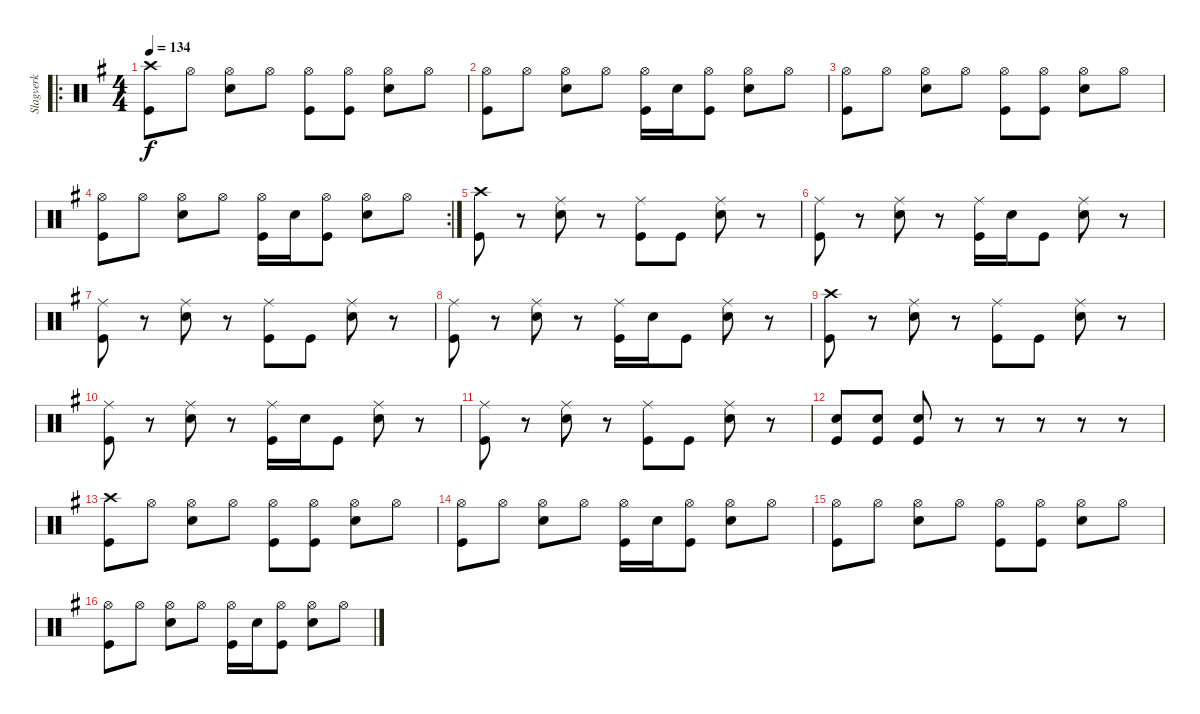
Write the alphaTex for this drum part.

\track ("Slagverk" "Slagverk") {instrument percussion}
\staff {score}
\articulation defaults
\ro
\ts (4 4)
\tempo 134
\clef neutral
\ks g
("Crash high (hit)" "Kick (hit)").8{dy f} "Hi-Hat (open)".8 ("Hi-Hat (open)" "Electric Snare (hit)").8 "Hi-Hat (open)".8 ("Hi-Hat (open)" "Kick (hit)").8 ("Hi-Hat (open)" "Kick (hit)").8 ("Hi-Hat (open)" "Electric Snare (hit)").8 "Hi-Hat (open)".8 |
("Hi-Hat (open)" "Kick (hit)").8 "Hi-Hat (open)".8 ("Hi-Hat (open)" "Electric Snare (hit)").8 "Hi-Hat (open)".8 ("Hi-Hat (open)" "Kick (hit)").16 "Electric Snare (hit)".16 ("Hi-Hat (open)" "Kick (hit)").8 ("Hi-Hat (open)" "Electric Snare (hit)").8 "Hi-Hat (open)".8 |
("Hi-Hat (open)" "Kick (hit)").8 "Hi-Hat (open)".8 ("Hi-Hat (open)" "Electric Snare (hit)").8 "Hi-Hat (open)".8 ("Hi-Hat (open)" "Kick (hit)").8 ("Hi-Hat (open)" "Kick (hit)").8 ("Hi-Hat (open)" "Electric Snare (hit)").8 "Hi-Hat (open)".8 |
\rc 2
("Hi-Hat (open)" "Kick (hit)").8 "Hi-Hat (open)".8 ("Hi-Hat (open)" "Electric Snare (hit)").8 "Hi-Hat (open)".8 ("Hi-Hat (open)" "Kick (hit)").16 "Electric Snare (hit)".16 ("Hi-Hat (open)" "Kick (hit)").8 ("Hi-Hat (open)" "Electric Snare (hit)").8 "Hi-Hat (open)".8 |
("Crash high (hit)" "Kick (hit)").8 r.8 ("Ride (middle)" "Electric Snare (hit)").8 r.8 ("Ride (middle)" "Kick (hit)").8 "Kick (hit)".8 ("Ride (middle)" "Electric Snare (hit)").8 r.8 |
("Ride (middle)" "Kick (hit)").8 r.8 ("Ride (middle)" "Electric Snare (hit)").8 r.8 ("Ride (middle)" "Kick (hit)").16 "Electric Snare (hit)".16 "Kick (hit)".8 ("Ride (middle)" "Electric Snare (hit)").8 r.8 |
("Ride (middle)" "Kick (hit)").8 r.8 ("Ride (middle)" "Electric Snare (hit)").8 r.8 ("Ride (middle)" "Kick (hit)").8 "Kick (hit)".8 ("Ride (middle)" "Electric Snare (hit)").8 r.8 |
("Ride (middle)" "Kick (hit)").8 r.8 ("Ride (middle)" "Electric Snare (hit)").8 r.8 ("Ride (middle)" "Kick (hit)").16 "Electric Snare (hit)".16 "Kick (hit)".8 ("Ride (middle)" "Electric Snare (hit)").8 r.8 |
("Crash high (hit)" "Kick (hit)").8 r.8 ("Ride (middle)" "Electric Snare (hit)").8 r.8 ("Ride (middle)" "Kick (hit)").8 "Kick (hit)".8 ("Ride (middle)" "Electric Snare (hit)").8 r.8 |
("Ride (middle)" "Kick (hit)").8 r.8 ("Ride (middle)" "Electric Snare (hit)").8 r.8 ("Ride (middle)" "Kick (hit)").16 "Electric Snare (hit)".16 "Kick (hit)".8 ("Ride (middle)" "Electric Snare (hit)").8 r.8 |
("Ride (middle)" "Kick (hit)").8 r.8 ("Ride (middle)" "Electric Snare (hit)").8 r.8 ("Ride (middle)" "Kick (hit)").8 "Kick (hit)".8 ("Ride (middle)" "Electric Snare (hit)").8 r.8 |
("Electric Snare (hit)" "Kick (hit)").8 ("Electric Snare (hit)" "Kick (hit)").8 ("Electric Snare (hit)" "Kick (hit)").8 r.8 r.8 r.8 r.8 r.8 |
("Crash high (hit)" "Kick (hit)").8 "Hi-Hat (open)".8 ("Hi-Hat (open)" "Electric Snare (hit)").8 "Hi-Hat (open)".8 ("Hi-Hat (open)" "Kick (hit)").8 ("Hi-Hat (open)" "Kick (hit)").8 ("Hi-Hat (open)" "Electric Snare (hit)").8 "Hi-Hat (open)".8 |
("Hi-Hat (open)" "Kick (hit)").8 "Hi-Hat (open)".8 ("Hi-Hat (open)" "Electric Snare (hit)").8 "Hi-Hat (open)".8 ("Hi-Hat (open)" "Kick (hit)").16 "Electric Snare (hit)".16 ("Hi-Hat (open)" "Kick (hit)").8 ("Hi-Hat (open)" "Electric Snare (hit)").8 "Hi-Hat (open)".8 |
("Hi-Hat (open)" "Kick (hit)").8 "Hi-Hat (open)".8 ("Hi-Hat (open)" "Electric Snare (hit)").8 "Hi-Hat (open)".8 ("Hi-Hat (open)" "Kick (hit)").8 ("Hi-Hat (open)" "Kick (hit)").8 ("Hi-Hat (open)" "Electric Snare (hit)").8 "Hi-Hat (open)".8 |
("Hi-Hat (open)" "Kick (hit)").8 "Hi-Hat (open)".8 ("Hi-Hat (open)" "Electric Snare (hit)").8 "Hi-Hat (open)".8 ("Hi-Hat (open)" "Kick (hit)").16 "Electric Snare (hit)".16 ("Hi-Hat (open)" "Kick (hit)").8 ("Hi-Hat (open)" "Electric Snare (hit)").8 "Hi-Hat (open)".8
